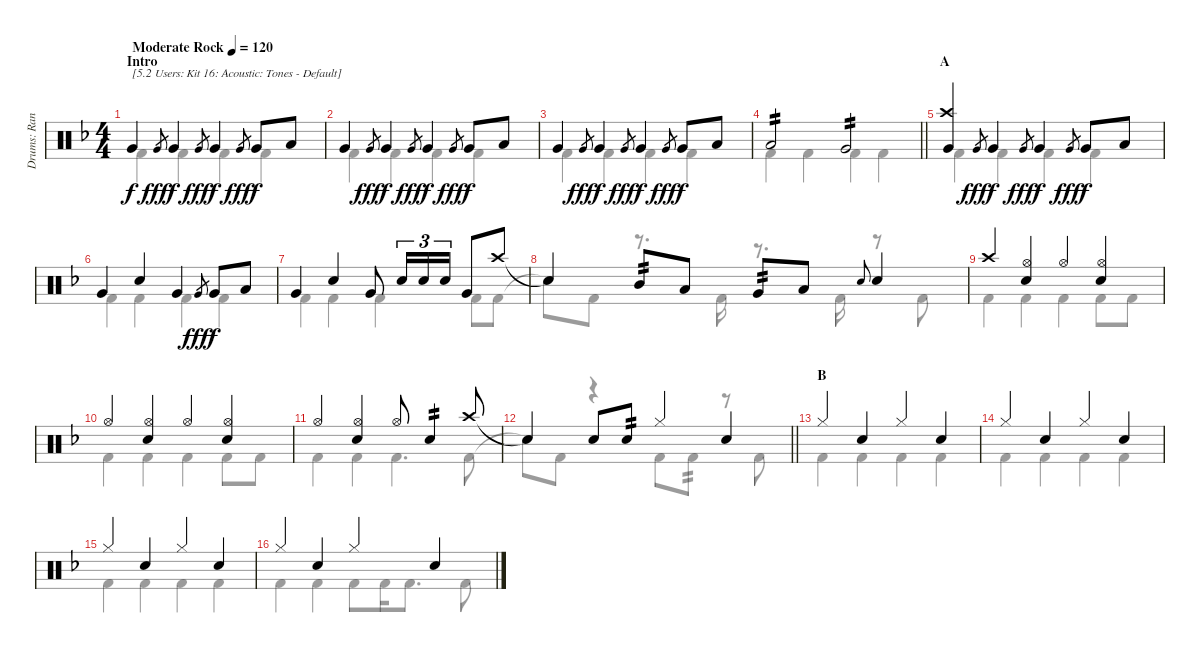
\track ("Drums: Randy" "Drums: Ran") {instrument percussion}
\staff {score}
\articulation defaults
\voice
\ts (4 4)
\section ("" "Intro")
\tempo (120 "Moderate Rock")
\clef neutral
\ks f "Very Low Tom (hit)".4{txt "[5.2 Users: Kit 16: Acoustic: Tones - Default]" dy f} "Very Low Tom (hit)".8{gr dy fff} "Very Low Tom (hit)".4{dy f} "Very Low Tom (hit)".8{gr dy fff} "Very Low Tom (hit)".4{dy f} "Very Low Tom (hit)".8{gr dy fff} "Very Low Tom (hit)".8{dy f} "Low Tom (hit)".8
|
"Very Low Tom (hit)".4 "Very Low Tom (hit)".8{gr dy fff} "Very Low Tom (hit)".4{dy f} "Very Low Tom (hit)".8{gr dy fff} "Very Low Tom (hit)".4{dy f} "Very Low Tom (hit)".8{gr dy fff} "Very Low Tom (hit)".8{dy f} "Low Tom (hit)".8 |
"Very Low Tom (hit)".4 "Very Low Tom (hit)".8{gr dy fff} "Very Low Tom (hit)".4{dy f} "Very Low Tom (hit)".8{gr dy fff} "Very Low Tom (hit)".4{dy f} "Very Low Tom (hit)".8{gr dy fff} "Very Low Tom (hit)".8{dy f} "Low Tom (hit)".8 |
\barLineRight lightlight "Low Tom (hit)".2{tp 2} "Very Low Tom (hit)".2{tp 2}
|
\section ("" "A")
("Crash high (hit)" "Very Low Tom (hit)").4 "Very Low Tom (hit)".8{gr dy fff} "Very Low Tom (hit)".4{dy f} "Very Low Tom (hit)".8{gr dy fff} "Very Low Tom (hit)".4{dy f} "Very Low Tom (hit)".8{gr dy fff} "Very Low Tom (hit)".8{dy f} "Low Tom (hit)".8 |
"Very Low Tom (hit)".4 "Snare (hit) 2".4 "Very Low Tom (hit)".4 "Very Low Tom (hit)".8{gr dy fff} "Very Low Tom (hit)".8{dy f} "Low Tom (hit)".8 |
"Very Low Tom (hit)".4 "Snare (hit) 2".4 "Very Low Tom (hit)".8 "Snare (hit) 2".16{tu (3 2)} "Snare (hit) 2".16{tu (3 2)} "Snare (hit) 2".16{tu (3 2)} "Very Low Tom (hit)".8 "Crash high (hit)".8 |
"Snare (hit)"{t}.4 "Mid Tom (hit)".8{tp 2} "Low Tom (hit)".8 "Very Low Tom (hit)".8{tp 2} "Low Floor Tom (hit)".8 "Electric Snare (hit)".8{gr onbeat} "Snare (hit) 2".4 |
"Crash high (hit)".4 ("Hi-Hat (open)" "Snare (hit) 2").4 "Hi-Hat (open)".4 ("Hi-Hat (open)" "Snare (hit) 2").4 |
"Hi-Hat (open)".4 ("Hi-Hat (open)" "Snare (hit) 2").4 "Hi-Hat (open)".4 ("Hi-Hat (open)" "Snare (hit) 2").4 |
"Hi-Hat (open)".4 ("Hi-Hat (open)" "Snare (hit) 2").4 "Hi-Hat (open)".8 "Snare (hit) 2".4{tp 2} "Crash high (hit)".8 |
\barLineRight lightlight "Snare (hit)"{t}.4 "Snare (hit) 2".8 "Snare (hit) 2".8{tp 2} "Hi-Hat (closed)".4 "Snare (hit) 2".4
|
\section ("" "B")
"Hi-Hat (closed)".4 "Snare (hit) 2".4 "Hi-Hat (closed)".4 "Snare (hit) 2".4 |
"Hi-Hat (closed)".4 "Snare (hit) 2".4 "Hi-Hat (closed)".4 "Snare (hit) 2".4 |
"Hi-Hat (closed)".4 "Snare (hit) 2".4 "Hi-Hat (closed)".4 "Snare (hit) 2".4 |
"Hi-Hat (closed)".4 "Snare (hit) 2".4 "Hi-Hat (closed)".4 "Snare (hit) 2".4
\voice
\clef neutral
\ottava regular
\simile none
\ks f "Kick (hit) 2".4{dy f} "Kick (hit) 2".4 "Kick (hit) 2".4 "Kick (hit) 2".4
|
"Kick (hit) 2".4 "Kick (hit) 2".4 "Kick (hit) 2".4 "Kick (hit) 2".4 |
"Kick (hit) 2".4 "Kick (hit) 2".4 "Kick (hit) 2".4 "Kick (hit) 2".4 |
\barLineRight lightlight "Kick (hit) 2".4 "Kick (hit) 2".4 "Kick (hit) 2".4 "Kick (hit) 2".4
|
"Kick (hit) 2".4 "Kick (hit) 2".4 "Kick (hit) 2".4 "Kick (hit) 2".4 |
"Kick (hit) 2".4 "Kick (hit) 2".4 "Kick (hit) 2".4 "Kick (hit) 2".4 |
"Kick (hit) 2".4 "Kick (hit) 2".4 "Kick (hit) 2".4 "Kick (hit) 2".8 "Kick (hit) 2".8 |
"Snare (hit)"{t}.8 "Kick (hit) 2".8 r.8{d} "Kick (hit) 2".16 r.8{d} "Kick (hit) 2".16 r.8 "Kick (hit) 2".8 |
"Kick (hit) 2".4 "Kick (hit) 2".4 "Kick (hit) 2".4 "Kick (hit) 2".8 "Kick (hit) 2".8 |
"Kick (hit) 2".4 "Kick (hit) 2".4 "Kick (hit) 2".4 "Kick (hit) 2".8 "Kick (hit) 2".8 |
"Kick (hit) 2".4 "Kick (hit) 2".4 "Kick (hit) 2".4{d} "Kick (hit) 2".8 |
\barLineRight lightlight "Snare (hit)"{t}.8 "Kick (hit) 2".8
r.4 "Kick (hit) 2".8 "Kick (hit) 2".8{tp 2} r.8 "Kick (hit) 2".8 |
"Kick (hit) 2".4 "Kick (hit) 2".4 "Kick (hit) 2".4 "Kick (hit) 2".4 |
"Kick (hit) 2".4 "Kick (hit) 2".4 "Kick (hit) 2".4 "Kick (hit) 2".4 |
"Kick (hit) 2".4 "Kick (hit) 2".4 "Kick (hit) 2".4 "Kick (hit) 2".4 |
"Kick (hit) 2".4 "Kick (hit) 2".4 "Kick (hit) 2".8 "Kick (hit) 2".16 "Kick (hit) 2".8{d} "Kick (hit) 2".8
